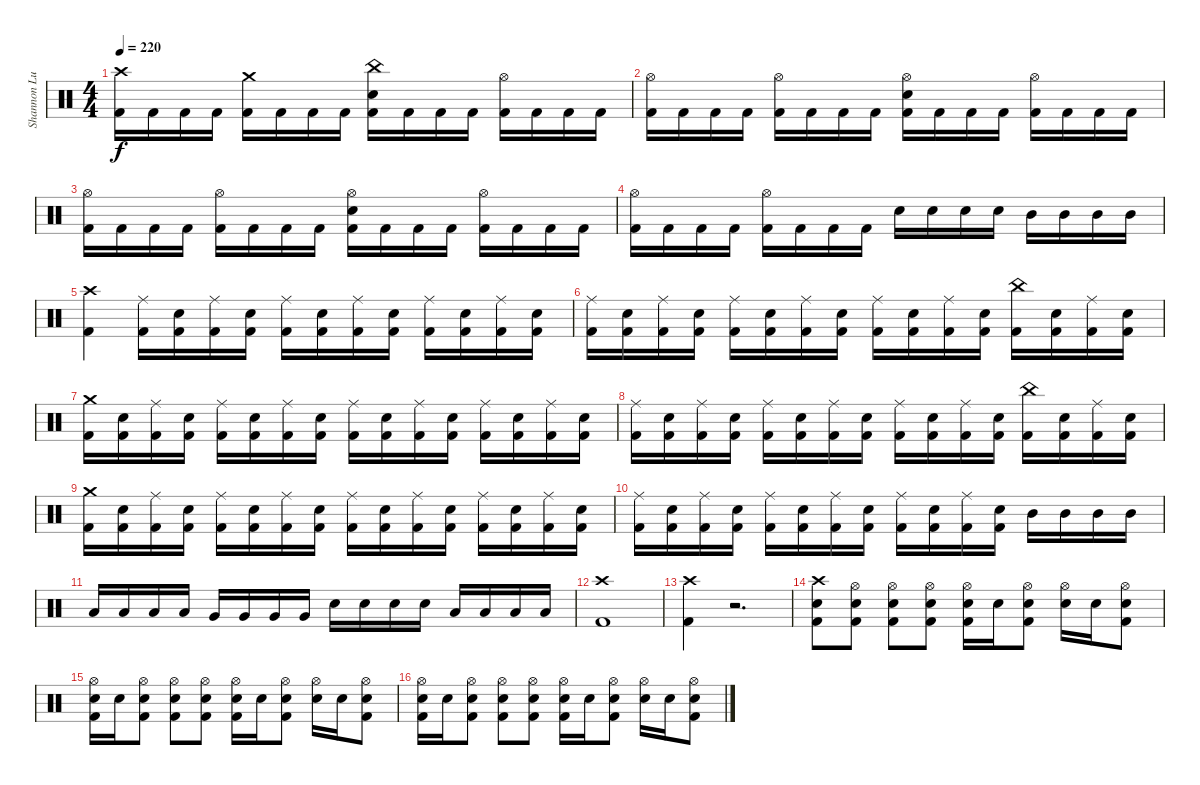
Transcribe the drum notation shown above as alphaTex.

\track ("Shannon Lucas (Drums)" "Shannon Lu") {instrument percussion}
\staff {score}
\articulation defaults
\ts (4 4)
\tempo 220
\clef neutral
\ks c
("Crash high (hit)" "Kick (hit) 2").16{dy f} "Kick (hit) 2".16 "Kick (hit) 2".16 "Kick (hit) 2".16 ("Crash medium (hit)" "Kick (hit) 2").16 "Kick (hit) 2".16 "Kick (hit) 2".16 "Kick (hit) 2".16 ("Snare (hit) 2" "China (hit)" "Kick (hit) 2").16 "Kick (hit) 2".16 "Kick (hit) 2".16 "Kick (hit) 2".16 ("Hi-Hat (open)" "Kick (hit) 2").16 "Kick (hit) 2".16 "Kick (hit) 2".16 "Kick (hit) 2".16 |
("Hi-Hat (open)" "Kick (hit) 2").16 "Kick (hit) 2".16 "Kick (hit) 2".16 "Kick (hit) 2".16 ("Hi-Hat (open)" "Kick (hit) 2").16 "Kick (hit) 2".16 "Kick (hit) 2".16 "Kick (hit) 2".16 ("Snare (hit) 2" "Hi-Hat (open)" "Kick (hit) 2").16 "Kick (hit) 2".16 "Kick (hit) 2".16 "Kick (hit) 2".16 ("Hi-Hat (open)" "Kick (hit) 2").16 "Kick (hit) 2".16 "Kick (hit) 2".16 "Kick (hit) 2".16 |
("Hi-Hat (open)" "Kick (hit) 2").16 "Kick (hit) 2".16 "Kick (hit) 2".16 "Kick (hit) 2".16 ("Hi-Hat (open)" "Kick (hit) 2").16 "Kick (hit) 2".16 "Kick (hit) 2".16 "Kick (hit) 2".16 ("Snare (hit) 2" "Hi-Hat (open)" "Kick (hit) 2").16 "Kick (hit) 2".16 "Kick (hit) 2".16 "Kick (hit) 2".16 ("Hi-Hat (open)" "Kick (hit) 2").16 "Kick (hit) 2".16 "Kick (hit) 2".16 "Kick (hit) 2".16 |
("Hi-Hat (open)" "Kick (hit) 2").16 "Kick (hit) 2".16 "Kick (hit) 2".16 "Kick (hit) 2".16 ("Hi-Hat (open)" "Kick (hit) 2").16 "Kick (hit) 2".16 "Kick (hit) 2".16 "Kick (hit) 2".16 "Snare (hit) 2".16 "Snare (hit) 2".16 "Snare (hit) 2".16 "Snare (hit) 2".16 "Mid Tom (hit)".16 "Mid Tom (hit)".16 "Mid Tom (hit)".16 "Mid Tom (hit)".16 |
("Crash high (hit)" "Kick (hit) 2").4 ("Ride (middle)" "Kick (hit) 2").16 ("Snare (hit) 2" "Kick (hit) 2").16 ("Ride (middle)" "Kick (hit) 2").16 ("Snare (hit) 2" "Kick (hit) 2").16 ("Ride (middle)" "Kick (hit) 2").16 ("Snare (hit) 2" "Kick (hit) 2").16 ("Ride (middle)" "Kick (hit) 2").16 ("Snare (hit) 2" "Kick (hit) 2").16 ("Ride (middle)" "Kick (hit) 2").16 ("Snare (hit) 2" "Kick (hit) 2").16 ("Ride (middle)" "Kick (hit) 2").16 ("Snare (hit) 2" "Kick (hit) 2").16 |
("Ride (middle)" "Kick (hit) 2").16 ("Snare (hit) 2" "Kick (hit) 2").16 ("Ride (middle)" "Kick (hit) 2").16 ("Snare (hit) 2" "Kick (hit) 2").16 ("Ride (middle)" "Kick (hit) 2").16 ("Snare (hit) 2" "Kick (hit) 2").16 ("Ride (middle)" "Kick (hit) 2").16 ("Snare (hit) 2" "Kick (hit) 2").16 ("Ride (middle)" "Kick (hit) 2").16 ("Snare (hit) 2" "Kick (hit) 2").16 ("Ride (middle)" "Kick (hit) 2").16 ("Snare (hit) 2" "Kick (hit) 2").16 ("China (hit)" "Kick (hit) 2").16 ("Snare (hit) 2" "Kick (hit) 2").16 ("Ride (middle)" "Kick (hit) 2").16 ("Snare (hit) 2" "Kick (hit) 2").16 |
("Crash medium (hit)" "Kick (hit) 2").16 ("Snare (hit) 2" "Kick (hit) 2").16 ("Ride (middle)" "Kick (hit) 2").16 ("Snare (hit) 2" "Kick (hit) 2").16 ("Ride (middle)" "Kick (hit) 2").16 ("Snare (hit) 2" "Kick (hit) 2").16 ("Ride (middle)" "Kick (hit) 2").16 ("Snare (hit) 2" "Kick (hit) 2").16 ("Ride (middle)" "Kick (hit) 2").16 ("Snare (hit) 2" "Kick (hit) 2").16 ("Ride (middle)" "Kick (hit) 2").16 ("Snare (hit) 2" "Kick (hit) 2").16 ("Ride (middle)" "Kick (hit) 2").16 ("Snare (hit) 2" "Kick (hit) 2").16 ("Ride (middle)" "Kick (hit) 2").16 ("Snare (hit) 2" "Kick (hit) 2").16 |
("Ride (middle)" "Kick (hit) 2").16 ("Snare (hit) 2" "Kick (hit) 2").16 ("Ride (middle)" "Kick (hit) 2").16 ("Snare (hit) 2" "Kick (hit) 2").16 ("Ride (middle)" "Kick (hit) 2").16 ("Snare (hit) 2" "Kick (hit) 2").16 ("Ride (middle)" "Kick (hit) 2").16 ("Snare (hit) 2" "Kick (hit) 2").16 ("Ride (middle)" "Kick (hit) 2").16 ("Snare (hit) 2" "Kick (hit) 2").16 ("Ride (middle)" "Kick (hit) 2").16 ("Snare (hit) 2" "Kick (hit) 2").16 ("China (hit)" "Kick (hit) 2").16 ("Snare (hit) 2" "Kick (hit) 2").16 ("Ride (middle)" "Kick (hit) 2").16 ("Snare (hit) 2" "Kick (hit) 2").16 |
("Crash medium (hit)" "Kick (hit) 2").16 ("Snare (hit) 2" "Kick (hit) 2").16 ("Ride (middle)" "Kick (hit) 2").16 ("Snare (hit) 2" "Kick (hit) 2").16 ("Ride (middle)" "Kick (hit) 2").16 ("Snare (hit) 2" "Kick (hit) 2").16 ("Ride (middle)" "Kick (hit) 2").16 ("Snare (hit) 2" "Kick (hit) 2").16 ("Ride (middle)" "Kick (hit) 2").16 ("Snare (hit) 2" "Kick (hit) 2").16 ("Ride (middle)" "Kick (hit) 2").16 ("Snare (hit) 2" "Kick (hit) 2").16 ("Ride (middle)" "Kick (hit) 2").16 ("Snare (hit) 2" "Kick (hit) 2").16 ("Ride (middle)" "Kick (hit) 2").16 ("Snare (hit) 2" "Kick (hit) 2").16 |
("Ride (middle)" "Kick (hit) 2").16 ("Snare (hit) 2" "Kick (hit) 2").16 ("Ride (middle)" "Kick (hit) 2").16 ("Snare (hit) 2" "Kick (hit) 2").16 ("Ride (middle)" "Kick (hit) 2").16 ("Snare (hit) 2" "Kick (hit) 2").16 ("Ride (middle)" "Kick (hit) 2").16 ("Snare (hit) 2" "Kick (hit) 2").16 ("Ride (middle)" "Kick (hit) 2").16 ("Snare (hit) 2" "Kick (hit) 2").16 ("Ride (middle)" "Kick (hit) 2").16 ("Snare (hit) 2" "Kick (hit) 2").16 "Mid Tom (hit)".16 "Mid Tom (hit)".16 "Mid Tom (hit)".16 "Mid Tom (hit)".16 |
"Low Tom (hit)".16 "Low Tom (hit)".16 "Low Tom (hit)".16 "Low Tom (hit)".16 "Very Low Tom (hit)".16 "Very Low Tom (hit)".16 "Very Low Tom (hit)".16 "Very Low Tom (hit)".16 "Snare (hit) 2".16 "Snare (hit) 2".16 "Snare (hit) 2".16 "Snare (hit) 2".16 "Low Floor Tom (hit)".16 "Low Floor Tom (hit)".16 "Low Floor Tom (hit)".16 "Low Floor Tom (hit)".16 |
("Crash high (hit)" "Kick (hit) 2").1 |
("Kick (hit) 2" "Crash high (hit)").4 r.2{d} |
("Kick (hit) 2" "Crash high (hit)" "Snare (hit) 2").8 ("Kick (hit) 2" "Hi-Hat (open)" "Snare (hit) 2").8 ("Kick (hit) 2" "Hi-Hat (open)" "Snare (hit) 2").8 ("Kick (hit) 2" "Hi-Hat (open)" "Snare (hit) 2").8 ("Kick (hit) 2" "Hi-Hat (open)" "Snare (hit) 2").16 "Snare (hit) 2".16 ("Kick (hit) 2" "Hi-Hat (open)" "Snare (hit) 2").8 ("Hi-Hat (open)" "Snare (hit) 2").16 "Snare (hit) 2".16 ("Kick (hit) 2" "Hi-Hat (open)" "Snare (hit) 2").8 |
("Kick (hit) 2" "Hi-Hat (open)" "Snare (hit) 2").16 "Snare (hit) 2".16 ("Kick (hit) 2" "Hi-Hat (open)" "Snare (hit) 2").8 ("Kick (hit) 2" "Hi-Hat (open)" "Snare (hit) 2").8 ("Kick (hit) 2" "Hi-Hat (open)" "Snare (hit) 2").8 ("Kick (hit) 2" "Hi-Hat (open)" "Snare (hit) 2").16 "Snare (hit) 2".16 ("Kick (hit) 2" "Hi-Hat (open)" "Snare (hit) 2").8 ("Hi-Hat (open)" "Snare (hit) 2").16 "Snare (hit) 2".16 ("Kick (hit) 2" "Hi-Hat (open)" "Snare (hit) 2").8 |
("Kick (hit) 2" "Hi-Hat (open)" "Snare (hit) 2").16 "Snare (hit) 2".16 ("Kick (hit) 2" "Hi-Hat (open)" "Snare (hit) 2").8 ("Kick (hit) 2" "Hi-Hat (open)" "Snare (hit) 2").8 ("Kick (hit) 2" "Hi-Hat (open)" "Snare (hit) 2").8 ("Kick (hit) 2" "Hi-Hat (open)" "Snare (hit) 2").16 "Snare (hit) 2".16 ("Kick (hit) 2" "Hi-Hat (open)" "Snare (hit) 2").8 ("Hi-Hat (open)" "Snare (hit) 2").16 "Snare (hit) 2".16 ("Kick (hit) 2" "Hi-Hat (open)" "Snare (hit) 2").8
